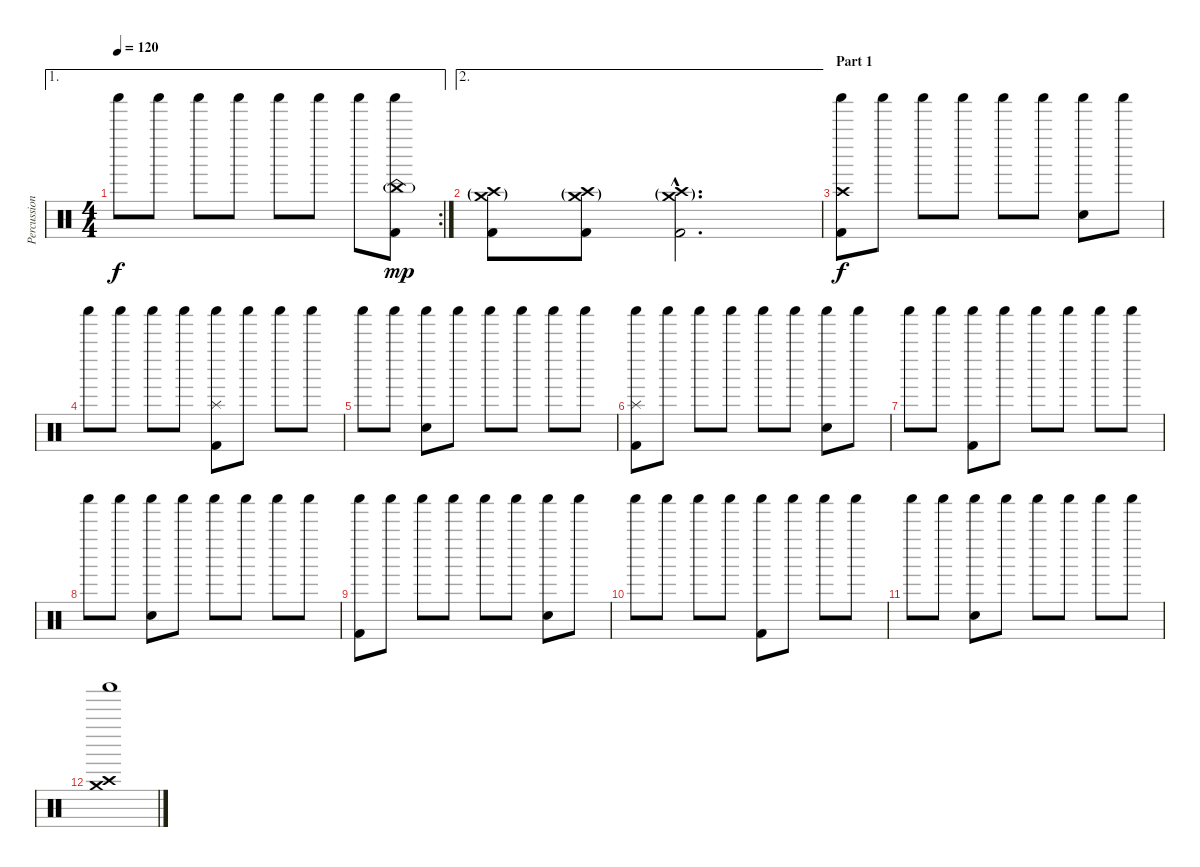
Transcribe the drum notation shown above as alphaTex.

\track ("Percussion" "Percussion") {instrument percussion}
\staff {score}
\articulation defaults
\ae 1
\rc 2
\ts (4 4)
\tempo 120
\clef neutral
\ks c "Shaker (hit)".8{dy f} "Shaker (hit)".8 "Shaker (hit)".8 "Shaker (hit)".8 "Shaker (hit)".8 "Shaker (hit)".8 "Shaker (hit)".8
("China (hit)"{g} "Shaker (hit)" "Kick (hit) 2").8{dy mp} |
\ae 2
("Crash medium (hit)"{g} "Crash high (hit)"{g} "Kick (hit) 2").8 ("Crash medium (hit)"{g} "Crash high (hit)"{g} "Kick (hit) 2").8 ("Crash medium (hit)"{g hac} "Crash high (hit)"{g hac} "Kick (hit) 2"{hac}).2{d} |
\section ("" "Part 1")
("Crash high (hit)" "Shaker (hit)" "Kick (hit) 2").8{dy f} "Shaker (hit)".8 "Shaker (hit)".8 "Shaker (hit)".8 "Shaker (hit)".8 "Shaker (hit)".8 ("Shaker (hit)" "Snare (hit) 2").8 "Shaker (hit)".8 |
"Shaker (hit)".8 "Shaker (hit)".8 "Shaker (hit)".8 "Shaker (hit)".8 ("Splash (hit)" "Shaker (hit)" "Kick (hit) 2").8 "Shaker (hit)".8 "Shaker (hit)".8 "Shaker (hit)".8 |
"Shaker (hit)".8 "Shaker (hit)".8 ("Shaker (hit)" "Snare (hit) 2").8 "Shaker (hit)".8 "Shaker (hit)".8 "Shaker (hit)".8 "Shaker (hit)".8 "Shaker (hit)".8 |
("Splash (hit)" "Shaker (hit)" "Kick (hit) 2").8 "Shaker (hit)".8 "Shaker (hit)".8 "Shaker (hit)".8 "Shaker (hit)".8 "Shaker (hit)".8 ("Shaker (hit)" "Snare (hit) 2").8 "Shaker (hit)".8 |
"Shaker (hit)".8 "Shaker (hit)".8 ("Shaker (hit)" "Kick (hit) 2").8 "Shaker (hit)".8 "Shaker (hit)".8 "Shaker (hit)".8 "Shaker (hit)".8 "Shaker (hit)".8 |
"Shaker (hit)".8 "Shaker (hit)".8 ("Shaker (hit)" "Snare (hit) 2").8 "Shaker (hit)".8 "Shaker (hit)".8 "Shaker (hit)".8 "Shaker (hit)".8 "Shaker (hit)".8 |
("Shaker (hit)" "Kick (hit) 2").8 "Shaker (hit)".8 "Shaker (hit)".8 "Shaker (hit)".8 "Shaker (hit)".8 "Shaker (hit)".8 ("Shaker (hit)" "Snare (hit) 2").8 "Shaker (hit)".8 |
"Shaker (hit)".8 "Shaker (hit)".8 "Shaker (hit)".8 "Shaker (hit)".8 ("Shaker (hit)" "Kick (hit) 2").8 "Shaker (hit)".8 "Shaker (hit)".8 "Shaker (hit)".8 |
"Shaker (hit)".8 "Shaker (hit)".8 ("Shaker (hit)" "Snare (hit) 2").8 "Shaker (hit)".8 "Shaker (hit)".8 "Shaker (hit)".8 "Shaker (hit)".8 "Shaker (hit)".8 |
("Crash high (hit)" "Crash medium (hit)" "Shaker (hit)").1
